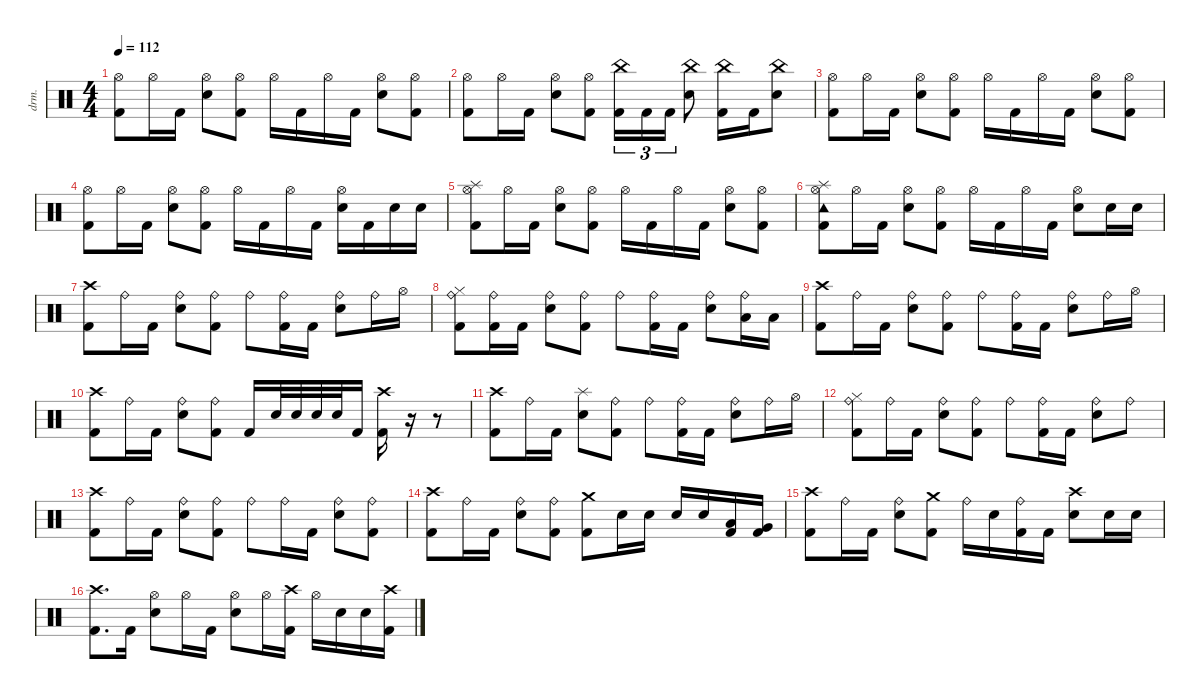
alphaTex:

\defaultSystemsLayout 4
\hideDynamics
\bracketExtendMode nobrackets
\otherSystemsTrackNameOrientation horizontal
\track ("Mike Portnoy" "drm.") {instrument percussion}
\staff {score}
\articulation defaults
\ts (4 4)
\tempo 112
\clef neutral
\ks c
("Kick (hit) 2" "Hi-Hat (open)").8{dy f beam Down} "Hi-Hat (open)".16{beam Down} "Kick (hit) 2".16{beam Down} ("Snare (hit) 2" "Hi-Hat (open)").8{beam Down} ("Kick (hit) 2" "Hi-Hat (open)").8{beam Down} "Hi-Hat (open)".16{beam Down} "Kick (hit) 2".16{beam Down} "Hi-Hat (open)".16{beam Down} "Kick (hit) 2".16{beam Down} ("Snare (hit) 2" "Hi-Hat (open)").8{beam Down} ("Kick (hit) 2" "Hi-Hat (open)").8{beam Down} |
("Kick (hit) 2" "Hi-Hat (open)").8{beam Down} "Hi-Hat (open)".16{beam Down} "Kick (hit) 2".16{beam Down} ("Snare (hit) 2" "Hi-Hat (open)").8{beam Down} ("Kick (hit) 2" "Hi-Hat (open)").8{beam Down} ("Kick (hit) 2" "China (hit)").16{tu (3 2) beam Down} "Kick (hit) 2".16{tu (3 2) beam Down} "Kick (hit) 2".16{tu (3 2) beam Down} ("Snare (hit) 2" "China (hit)").8{beam Down} ("Kick (hit) 2" "China (hit)").16{beam Down} "Kick (hit) 2".16{beam Down} ("Snare (hit) 2" "China (hit)").8{beam Down} |
("Kick (hit) 2" "Hi-Hat (open)").8{beam Down} "Hi-Hat (open)".16{beam Down} "Kick (hit) 2".16{beam Down} ("Snare (hit) 2" "Hi-Hat (open)").8{beam Down} ("Kick (hit) 2" "Hi-Hat (open)").8{beam Down} "Hi-Hat (open)".16{beam Down} "Kick (hit) 2".16{beam Down} "Hi-Hat (open)".16{beam Down} "Kick (hit) 2".16{beam Down} ("Snare (hit) 2" "Hi-Hat (open)").8{beam Down} ("Kick (hit) 2" "Hi-Hat (open)").8{beam Down} |
("Kick (hit) 2" "Hi-Hat (open)").8{beam Down} "Hi-Hat (open)".16{beam Down} "Kick (hit) 2".16{beam Down} ("Snare (hit) 2" "Hi-Hat (open)").8{beam Down} ("Kick (hit) 2" "Hi-Hat (open)").8{beam Down} "Hi-Hat (open)".16{beam Down} "Kick (hit) 2".16{beam Down} "Hi-Hat (open)".16{beam Down} "Kick (hit) 2".16{beam Down} ("Snare (hit) 2" "Hi-Hat (open)").16{beam Down} "Kick (hit) 2".16{beam Down} "Snare (hit) 2".16{beam Down} "Snare (hit) 2".16{beam Down} |
("Kick (hit) 2" "Hi-Hat (open)" "Splash (hit)").8{beam Down} "Hi-Hat (open)".16{beam Down} "Kick (hit) 2".16{beam Down} ("Snare (hit) 2" "Hi-Hat (open)").8{beam Down} ("Kick (hit) 2" "Hi-Hat (open)").8{beam Down} "Hi-Hat (open)".16{beam Down} "Kick (hit) 2".16{beam Down} "Hi-Hat (open)".16{beam Down} "Kick (hit) 2".16{beam Down} ("Snare (hit) 2" "Hi-Hat (open)").8{beam Down} ("Kick (hit) 2" "Hi-Hat (open)").8{beam Down} |
("Kick (hit) 2" "Hi-Hat (open)" "Tambourine (hit)" "Splash (hit)").8{beam Down} "Hi-Hat (open)".16{beam Down} "Kick (hit) 2".16{beam Down} ("Snare (hit) 2" "Hi-Hat (open)").8{beam Down} ("Kick (hit) 2" "Hi-Hat (open)").8{beam Down} "Hi-Hat (open)".16{beam Down} "Kick (hit) 2".16{beam Down} "Hi-Hat (open)".16{beam Down} "Kick (hit) 2".16{beam Down} ("Snare (hit) 2" "Hi-Hat (open)").8{beam Down} "Snare (hit) 2".16{beam Down} "Snare (hit) 2".16{beam Down} |
("Kick (hit) 2" "Crash high (hit)").8{beam Down} "Ride (bell)".16{beam Down} "Kick (hit) 2".16{beam Down} ("Snare (hit) 2" "Ride (bell)").8{beam Down} ("Kick (hit) 2" "Ride (bell)").8{beam Down} "Ride (bell)".8{beam Down} ("Kick (hit) 2" "Ride (bell)").16{beam Down} "Kick (hit) 2".16{beam Down} ("Snare (hit) 2" "Ride (bell)").8{beam Down} "Ride (bell)".16{beam Down} "Hi-Hat (open)".16{beam Down} |
("Kick (hit) 2" "Hi-Hat (closed)" "Ride (bell)").8{beam Down} ("Kick (hit) 2" "Ride (bell)").16{beam Down} "Kick (hit) 2".16{beam Down} ("Snare (hit) 2" "Ride (bell)").8{beam Down} ("Kick (hit) 2" "Ride (bell)").8{beam Down} "Ride (bell)".8{beam Down} ("Kick (hit) 2" "Ride (bell)").16{beam Down} "Kick (hit) 2".16{beam Down} ("Snare (hit) 2" "Ride (bell)").8{beam Down} ("Low Tom (hit)" "Ride (bell)").16{beam Down} "Low Tom (hit)".16{beam Down} |
("Kick (hit) 2" "Crash high (hit)").8{beam Down} "Ride (bell)".16{beam Down} "Kick (hit) 2".16{beam Down} ("Snare (hit) 2" "Ride (bell)").8{beam Down} ("Kick (hit) 2" "Ride (bell)").8{beam Down} "Ride (bell)".8{beam Down} ("Kick (hit) 2" "Ride (bell)").16{beam Down} "Kick (hit) 2".16{beam Down} ("Snare (hit) 2" "Ride (bell)").8{beam Down} "Ride (bell)".16{beam Down} "Hi-Hat (open)".16{beam Down} |
("Kick (hit) 2" "Crash high (hit)").8{beam Down} "Ride (bell)".16{beam Down} "Kick (hit) 2".16{beam Down} ("Snare (hit) 2" "Ride (bell)").8{beam Down} ("Kick (hit) 2" "Ride (bell)").8{beam Down} "Kick (hit) 2".16{beam Up} "Snare (hit) 2".32{beam Up} "Snare (hit) 2".32{beam Up} "Snare (hit) 2".32{beam Up} "Snare (hit) 2".32{beam Up} "Kick (hit) 2".16{beam Up} ("Kick (hit) 2" "Crash high (hit)").16{beam Down} r.16{beam Down} r.8{beam Down} |
("Kick (hit) 2" "Crash high (hit)").8{beam Down} "Ride (bell)".16{beam Down} "Kick (hit) 2".16{beam Down} ("Snare (hit) 2" "Splash (hit)").8{beam Down} ("Kick (hit) 2" "Ride (bell)").8{beam Down} "Ride (bell)".8{beam Down} ("Kick (hit) 2" "Ride (bell)").16{beam Down} "Kick (hit) 2".16{beam Down} ("Snare (hit) 2" "Ride (bell)").8{beam Down} "Ride (bell)".16{beam Down} "Hi-Hat (open)".16{beam Down} |
("Kick (hit) 2" "Hi-Hat (closed)" "Ride (bell)").8{beam Down} "Ride (bell)".16{beam Down} "Kick (hit) 2".16{beam Down} ("Snare (hit) 2" "Ride (bell)").8{beam Down} ("Kick (hit) 2" "Ride (bell)").8{beam Down} "Ride (bell)".8{beam Down} ("Kick (hit) 2" "Ride (bell)").16{beam Down} "Kick (hit) 2".16{beam Down} ("Snare (hit) 2" "Ride (bell)").8{beam Down} "Ride (bell)".8{beam Down} |
("Kick (hit) 2" "Crash high (hit)").8{beam Down} "Ride (bell)".16{beam Down} "Kick (hit) 2".16{beam Down} ("Snare (hit) 2" "Ride (bell)").8{beam Down} ("Kick (hit) 2" "Ride (bell)").8{beam Down} "Ride (bell)".8{beam Down} "Ride (bell)".16{beam Down} "Kick (hit) 2".16{beam Down} ("Snare (hit) 2" "Ride (bell)").8{beam Down} ("Kick (hit) 2" "Ride (bell)").8{beam Down} |
("Kick (hit) 2" "Crash high (hit)").8{beam Down} "Ride (bell)".16{beam Down} "Kick (hit) 2".16{beam Down} ("Snare (hit) 2" "Ride (bell)").8{beam Down} ("Kick (hit) 2" "Ride (bell)").8{beam Down} ("Kick (hit) 2" "Crash medium (hit)").8{beam Down} "Snare (hit) 2".16{beam Down} "Snare (hit) 2".16{beam Down} "Snare (hit) 2".16{beam Up} "Snare (hit) 2".16{beam Up} ("Kick (hit) 2" "Low Tom (hit)").16{beam Up} ("Kick (hit) 2" "Very Low Tom (hit)").16{beam Up} |
("Kick (hit) 2" "Crash high (hit)").8{beam Down} "Ride (bell)".16{beam Down} "Kick (hit) 2".16{beam Down} ("Snare (hit) 2" "Ride (bell)").8{beam Down} ("Kick (hit) 2" "Crash medium (hit)").8{beam Down} "Ride (bell)".16{beam Down} "Snare (hit) 2".16{beam Down} ("Kick (hit) 2" "Ride (bell)").16{beam Down} "Kick (hit) 2".16{beam Down} ("Snare (hit) 2" "Crash high (hit)").8{beam Down} "Snare (hit) 2".16{beam Down} "Snare (hit) 2".16{beam Down} |
("Kick (hit) 2" "Crash high (hit)").8{d beam Down} "Kick (hit) 2".16{beam Down} ("Snare (hit) 2" "Hi-Hat (open)").8{beam Down} "Hi-Hat (open)".16{beam Down} "Kick (hit) 2".16{beam Down} ("Snare (hit) 2" "Hi-Hat (open)").8{beam Down} "Hi-Hat (open)".16{beam Down} ("Kick (hit) 2" "Crash high (hit)").16{beam Down} "Hi-Hat (open)".16{beam Down} "Snare (hit) 2".16{beam Down} "Snare (hit) 2".16{beam Down} ("Kick (hit) 2" "Crash high (hit)").16{beam Down}
